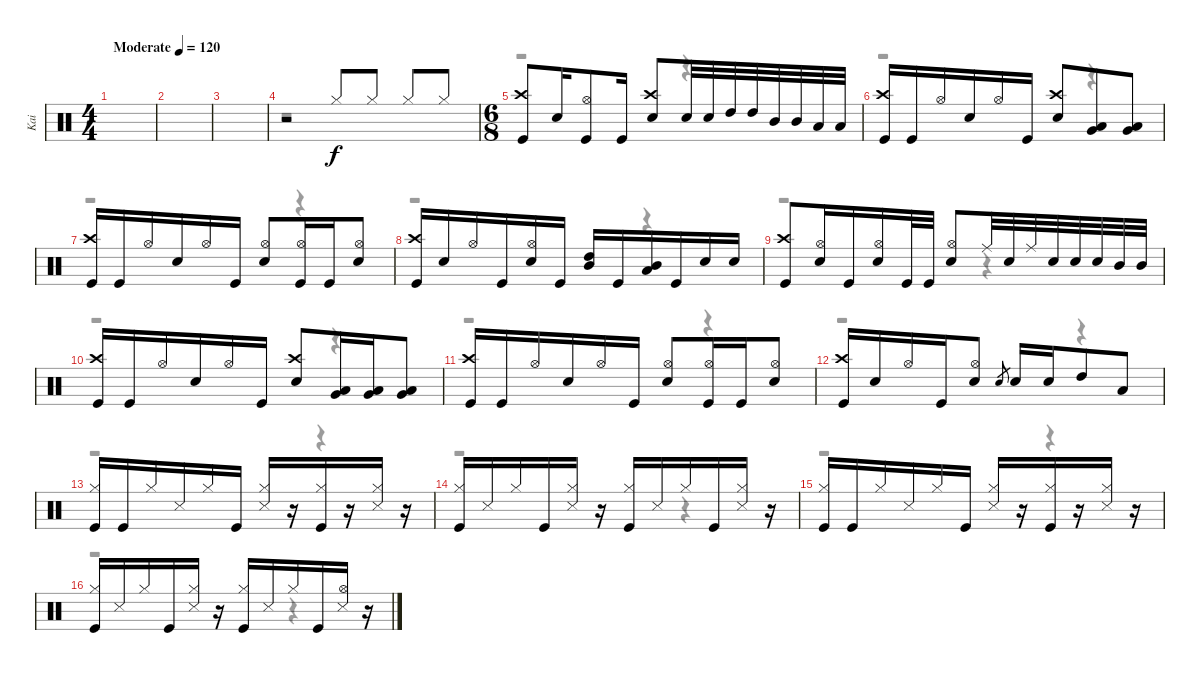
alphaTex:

\track ("Kai" "Kai") {instrument percussion}
\staff {score}
\articulation defaults
\voice
\ts (4 4)
\tempo (120 "Moderate")
\tempo 100
\tempo (120 "Moderate")
\clef neutral
\ks c
|
|
|
r.2 "Hi-Hat (closed)".8 "Hi-Hat (closed)".8 "Hi-Hat (closed)".8 "Hi-Hat (closed)".8 |
\ts (6 8)
("Crash high (hit)" "Kick (hit)").8 "Snare (hit) 2".16 ("Hi-Hat (open)" "Kick (hit)").8 "Kick (hit)".16 ("Crash high (hit)" "Snare (hit) 2").8 "Snare (hit) 2".32 "Snare (hit) 2".32 "High Tom (hit)".32 "High Tom (hit)".32 "Mid Tom (hit)".32 "Mid Tom (hit)".32 "Low Tom (hit)".32 "Low Tom (hit)".32 |
("Crash high (hit)" "Kick (hit)").16 "Kick (hit)".16 "Hi-Hat (open)".16 "Snare (hit) 2".16 "Hi-Hat (open)".16 "Kick (hit)".16 ("Crash high (hit)" "Snare (hit) 2").8 ("Low Tom (hit)" "Very Low Tom (hit)").8 ("Low Tom (hit)" "Very Low Tom (hit)").8 |
("Crash high (hit)" "Kick (hit)").16 "Kick (hit)".16 "Hi-Hat (open)".16 "Snare (hit) 2".16 "Hi-Hat (open)".16 "Kick (hit)".16 ("Hi-Hat (open)" "Snare (hit) 2").8 ("Hi-Hat (open)" "Kick (hit)").16 "Kick (hit)".16 ("Hi-Hat (open)" "Snare (hit) 2").8 |
("Crash high (hit)" "Kick (hit)").16 "Snare (hit) 2".16 "Hi-Hat (open)".16 "Kick (hit)".16 ("Hi-Hat (open)" "Snare (hit) 2").16 "Kick (hit)".16 ("Mid Tom (hit)" "High Tom (hit)").16 "Kick (hit)".16 ("Low Tom (hit)" "Mid Tom (hit)").16 "Kick (hit)".16 "Snare (hit) 2".16 "Snare (hit) 2".16 |
("Crash high (hit)" "Kick (hit)").8 ("Hi-Hat (open)" "Snare (hit) 2").16 "Kick (hit)".16 ("Snare (hit) 2" "Hi-Hat (open)").16 "Kick (hit)".32 "Kick (hit)".32 ("Hi-Hat (open)" "Snare (hit) 2").8 "Ride (middle)".32 "Snare (hit) 2".32 "Ride (middle)".32 "Snare (hit) 2".32 "Snare (hit) 2".32 "Snare (hit) 2".32 "Mid Tom (hit)".32 "Mid Tom (hit)".32 |
("Crash high (hit)" "Kick (hit)").16 "Kick (hit)".16 "Hi-Hat (open)".16 "Snare (hit) 2".16 "Hi-Hat (open)".16 "Kick (hit)".16 ("Crash high (hit)" "Snare (hit) 2").8 ("Low Tom (hit)" "Very Low Tom (hit)").16 ("Low Tom (hit)" "Very Low Tom (hit)").16 ("Low Tom (hit)" "Very Low Tom (hit)").8 |
("Crash high (hit)" "Kick (hit)").16 "Kick (hit)".16 "Hi-Hat (open)".16 "Snare (hit) 2".16 "Hi-Hat (open)".16 "Kick (hit)".16 ("Hi-Hat (open)" "Snare (hit) 2").8 ("Hi-Hat (open)" "Kick (hit)").16 "Kick (hit)".16 ("Hi-Hat (open)" "Snare (hit) 2").8 |
("Crash high (hit)" "Kick (hit)").16 "Snare (hit) 2".16 "Hi-Hat (open)".16 "Kick (hit)".16 ("Hi-Hat (open)" "Snare (hit) 2").8 "Snare (hit) 2".8{gr} "Snare (hit) 2".16 "Snare (hit) 2".16 "High Tom (hit)".8 "Low Tom (hit)".8 |
("Hi-Hat (closed)" "Kick (hit)").16 "Kick (hit)".16 "Hi-Hat (closed)".16 "Snare (side stick) 3".16 "Hi-Hat (closed)".16 "Kick (hit)".16 ("Hi-Hat (closed)" "Snare (side stick) 3").16 r.16 ("Hi-Hat (closed)" "Kick (hit)").16 r.16 ("Hi-Hat (closed)" "Snare (side stick) 3").16 r.16 |
("Hi-Hat (closed)" "Kick (hit)").16 "Snare (side stick) 3".16 "Hi-Hat (closed)".16 "Kick (hit)".16 ("Hi-Hat (closed)" "Snare (side stick) 3").16 r.16 ("Hi-Hat (closed)" "Kick (hit)").16 "Snare (side stick) 3".16 "Hi-Hat (closed)".16 "Kick (hit)".16 ("Hi-Hat (closed)" "Snare (side stick) 3").16 r.16 |
("Hi-Hat (closed)" "Kick (hit)").16 "Kick (hit)".16 "Hi-Hat (closed)".16 "Snare (side stick) 3".16 "Hi-Hat (closed)".16 "Kick (hit)".16 ("Hi-Hat (closed)" "Snare (side stick) 3").16 r.16 ("Hi-Hat (closed)" "Kick (hit)").16 r.16 ("Hi-Hat (closed)" "Snare (side stick) 3").16 r.16 |
("Hi-Hat (closed)" "Kick (hit)").16 "Snare (side stick) 3".16 "Hi-Hat (closed)".16 "Kick (hit)".16 ("Hi-Hat (closed)" "Snare (side stick) 3").16 r.16 ("Hi-Hat (closed)" "Kick (hit)").16 "Snare (side stick) 3".16 "Hi-Hat (closed)".16 "Kick (hit)".16 ("Hi-Hat (open)" "Snare (side stick) 3").16 r.16
\voice
\clef neutral
\ottava regular
\simile none
\ks c
|
|
|
r.1 |
r.2 r.4 |
r.2 r.4 |
r.2 r.4 |
r.2 r.4 |
r.2 r.4 |
r.2 r.4 |
r.2 r.4 |
r.2 r.4 |
r.2 r.4 |
r.2 r.4 |
r.2 r.4 |
r.2 r.4
